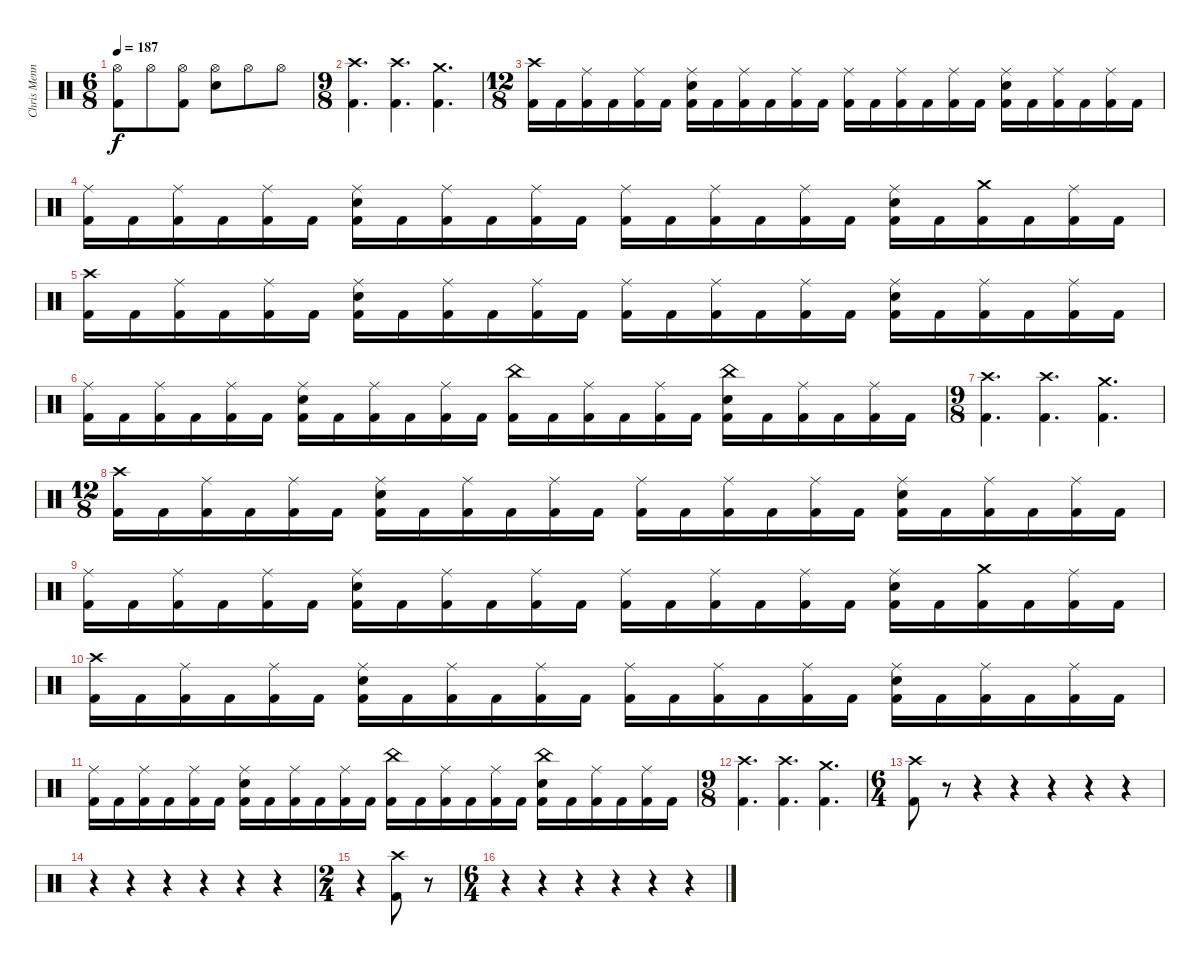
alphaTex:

\track ("Chris Menning" "Chris Menn") {instrument percussion}
\staff {score}
\articulation defaults
\ts (6 8)
\tempo 187
\clef neutral
\ks c
("Hi-Hat (open)" "Kick (hit) 2").8{dy f} "Hi-Hat (open)".8 ("Hi-Hat (open)" "Kick (hit) 2").8 ("Hi-Hat (open)" "Electric Snare (hit)").8 "Hi-Hat (open)".8 "Hi-Hat (open)".8 |
\ts (9 8)
("Crash high (hit)" "Kick (hit) 2").4{d} ("Crash high (hit)" "Kick (hit) 2").4{d} ("Crash medium (hit)" "Kick (hit) 2").4{d} |
\ts (12 8)
("Crash high (hit)" "Kick (hit) 2").16 "Kick (hit) 2".16 ("Ride (middle)" "Kick (hit) 2").16 "Kick (hit) 2".16 ("Ride (middle)" "Kick (hit) 2").16 "Kick (hit) 2".16 ("Ride (middle)" "Electric Snare (hit)" "Kick (hit) 2").16 "Kick (hit) 2".16 ("Ride (middle)" "Kick (hit) 2").16 "Kick (hit) 2".16 ("Ride (middle)" "Kick (hit) 2").16 "Kick (hit) 2".16 ("Ride (middle)" "Kick (hit) 2").16 "Kick (hit) 2".16 ("Ride (middle)" "Kick (hit) 2").16 "Kick (hit) 2".16 ("Ride (middle)" "Kick (hit) 2").16 "Kick (hit) 2".16 ("Ride (middle)" "Electric Snare (hit)" "Kick (hit) 2").16 "Kick (hit) 2".16 ("Ride (middle)" "Kick (hit) 2").16 "Kick (hit) 2".16 ("Ride (middle)" "Kick (hit) 2").16 "Kick (hit) 2".16 |
("Ride (middle)" "Kick (hit) 2").16 "Kick (hit) 2".16 ("Ride (middle)" "Kick (hit) 2").16 "Kick (hit) 2".16 ("Ride (middle)" "Kick (hit) 2").16 "Kick (hit) 2".16 ("Ride (middle)" "Electric Snare (hit)" "Kick (hit) 2").16 "Kick (hit) 2".16 ("Ride (middle)" "Kick (hit) 2").16 "Kick (hit) 2".16 ("Ride (middle)" "Kick (hit) 2").16 "Kick (hit) 2".16 ("Ride (middle)" "Kick (hit) 2").16 "Kick (hit) 2".16 ("Ride (middle)" "Kick (hit) 2").16 "Kick (hit) 2".16 ("Ride (middle)" "Kick (hit) 2").16 "Kick (hit) 2".16 ("Ride (middle)" "Electric Snare (hit)" "Kick (hit) 2").16 "Kick (hit) 2".16 ("Crash medium (hit)" "Kick (hit) 2").16 "Kick (hit) 2".16 ("Ride (middle)" "Kick (hit) 2").16 "Kick (hit) 2".16 |
("Crash high (hit)" "Kick (hit) 2").16 "Kick (hit) 2".16 ("Ride (middle)" "Kick (hit) 2").16 "Kick (hit) 2".16 ("Ride (middle)" "Kick (hit) 2").16 "Kick (hit) 2".16 ("Ride (middle)" "Electric Snare (hit)" "Kick (hit) 2").16 "Kick (hit) 2".16 ("Ride (middle)" "Kick (hit) 2").16 "Kick (hit) 2".16 ("Ride (middle)" "Kick (hit) 2").16 "Kick (hit) 2".16 ("Ride (middle)" "Kick (hit) 2").16 "Kick (hit) 2".16 ("Ride (middle)" "Kick (hit) 2").16 "Kick (hit) 2".16 ("Ride (middle)" "Kick (hit) 2").16 "Kick (hit) 2".16 ("Ride (middle)" "Electric Snare (hit)" "Kick (hit) 2").16 "Kick (hit) 2".16 ("Ride (middle)" "Kick (hit) 2").16 "Kick (hit) 2".16 ("Ride (middle)" "Kick (hit) 2").16 "Kick (hit) 2".16 |
("Ride (middle)" "Kick (hit) 2").16 "Kick (hit) 2".16 ("Ride (middle)" "Kick (hit) 2").16 "Kick (hit) 2".16 ("Ride (middle)" "Kick (hit) 2").16 "Kick (hit) 2".16 ("Ride (middle)" "Electric Snare (hit)" "Kick (hit) 2").16 "Kick (hit) 2".16 ("Ride (middle)" "Kick (hit) 2").16 "Kick (hit) 2".16 ("Ride (middle)" "Kick (hit) 2").16 "Kick (hit) 2".16 ("China (hit)" "Kick (hit) 2").16 "Kick (hit) 2".16 ("Ride (middle)" "Kick (hit) 2").16 "Kick (hit) 2".16 ("Ride (middle)" "Kick (hit) 2").16 "Kick (hit) 2".16 ("China (hit)" "Electric Snare (hit)" "Kick (hit) 2").16 "Kick (hit) 2".16 ("Ride (middle)" "Kick (hit) 2").16 "Kick (hit) 2".16 ("Ride (middle)" "Kick (hit) 2").16 "Kick (hit) 2".16 |
\ts (9 8)
("Crash high (hit)" "Kick (hit) 2").4{d} ("Crash high (hit)" "Kick (hit) 2").4{d} ("Crash medium (hit)" "Kick (hit) 2").4{d} |
\ts (12 8)
("Crash high (hit)" "Kick (hit) 2").16 "Kick (hit) 2".16 ("Ride (middle)" "Kick (hit) 2").16 "Kick (hit) 2".16 ("Ride (middle)" "Kick (hit) 2").16 "Kick (hit) 2".16 ("Ride (middle)" "Electric Snare (hit)" "Kick (hit) 2").16 "Kick (hit) 2".16 ("Ride (middle)" "Kick (hit) 2").16 "Kick (hit) 2".16 ("Ride (middle)" "Kick (hit) 2").16 "Kick (hit) 2".16 ("Ride (middle)" "Kick (hit) 2").16 "Kick (hit) 2".16 ("Ride (middle)" "Kick (hit) 2").16 "Kick (hit) 2".16 ("Ride (middle)" "Kick (hit) 2").16 "Kick (hit) 2".16 ("Ride (middle)" "Electric Snare (hit)" "Kick (hit) 2").16 "Kick (hit) 2".16 ("Ride (middle)" "Kick (hit) 2").16 "Kick (hit) 2".16 ("Ride (middle)" "Kick (hit) 2").16 "Kick (hit) 2".16 |
("Ride (middle)" "Kick (hit) 2").16 "Kick (hit) 2".16 ("Ride (middle)" "Kick (hit) 2").16 "Kick (hit) 2".16 ("Ride (middle)" "Kick (hit) 2").16 "Kick (hit) 2".16 ("Ride (middle)" "Electric Snare (hit)" "Kick (hit) 2").16 "Kick (hit) 2".16 ("Ride (middle)" "Kick (hit) 2").16 "Kick (hit) 2".16 ("Ride (middle)" "Kick (hit) 2").16 "Kick (hit) 2".16 ("Ride (middle)" "Kick (hit) 2").16 "Kick (hit) 2".16 ("Ride (middle)" "Kick (hit) 2").16 "Kick (hit) 2".16 ("Ride (middle)" "Kick (hit) 2").16 "Kick (hit) 2".16 ("Ride (middle)" "Electric Snare (hit)" "Kick (hit) 2").16 "Kick (hit) 2".16 ("Crash medium (hit)" "Kick (hit) 2").16 "Kick (hit) 2".16 ("Ride (middle)" "Kick (hit) 2").16 "Kick (hit) 2".16 |
("Crash high (hit)" "Kick (hit) 2").16 "Kick (hit) 2".16 ("Ride (middle)" "Kick (hit) 2").16 "Kick (hit) 2".16 ("Ride (middle)" "Kick (hit) 2").16 "Kick (hit) 2".16 ("Ride (middle)" "Electric Snare (hit)" "Kick (hit) 2").16 "Kick (hit) 2".16 ("Ride (middle)" "Kick (hit) 2").16 "Kick (hit) 2".16 ("Ride (middle)" "Kick (hit) 2").16 "Kick (hit) 2".16 ("Ride (middle)" "Kick (hit) 2").16 "Kick (hit) 2".16 ("Ride (middle)" "Kick (hit) 2").16 "Kick (hit) 2".16 ("Ride (middle)" "Kick (hit) 2").16 "Kick (hit) 2".16 ("Ride (middle)" "Electric Snare (hit)" "Kick (hit) 2").16 "Kick (hit) 2".16 ("Ride (middle)" "Kick (hit) 2").16 "Kick (hit) 2".16 ("Ride (middle)" "Kick (hit) 2").16 "Kick (hit) 2".16 |
("Ride (middle)" "Kick (hit) 2").16 "Kick (hit) 2".16 ("Ride (middle)" "Kick (hit) 2").16 "Kick (hit) 2".16 ("Ride (middle)" "Kick (hit) 2").16 "Kick (hit) 2".16 ("Ride (middle)" "Electric Snare (hit)" "Kick (hit) 2").16 "Kick (hit) 2".16 ("Ride (middle)" "Kick (hit) 2").16 "Kick (hit) 2".16 ("Ride (middle)" "Kick (hit) 2").16 "Kick (hit) 2".16 ("China (hit)" "Kick (hit) 2").16 "Kick (hit) 2".16 ("Ride (middle)" "Kick (hit) 2").16 "Kick (hit) 2".16 ("Ride (middle)" "Kick (hit) 2").16 "Kick (hit) 2".16 ("China (hit)" "Electric Snare (hit)" "Kick (hit) 2").16 "Kick (hit) 2".16 ("Ride (middle)" "Kick (hit) 2").16 "Kick (hit) 2".16 ("Ride (middle)" "Kick (hit) 2").16 "Kick (hit) 2".16 |
\ts (9 8)
("Crash high (hit)" "Kick (hit) 2").4{d} ("Crash high (hit)" "Kick (hit) 2").4{d} ("Crash medium (hit)" "Kick (hit) 2").4{d} |
\ts (6 4)
("Crash high (hit)" "Kick (hit) 2").8 r.8 r.4 r.4 r.4 r.4 r.4 |
r.4 r.4 r.4 r.4 r.4 r.4 |
\ts (2 4)
r.4 ("Crash high (hit)" "Kick (hit) 2").8 r.8 |
\ts (6 4)
r.4 r.4 r.4 r.4 r.4 r.4
